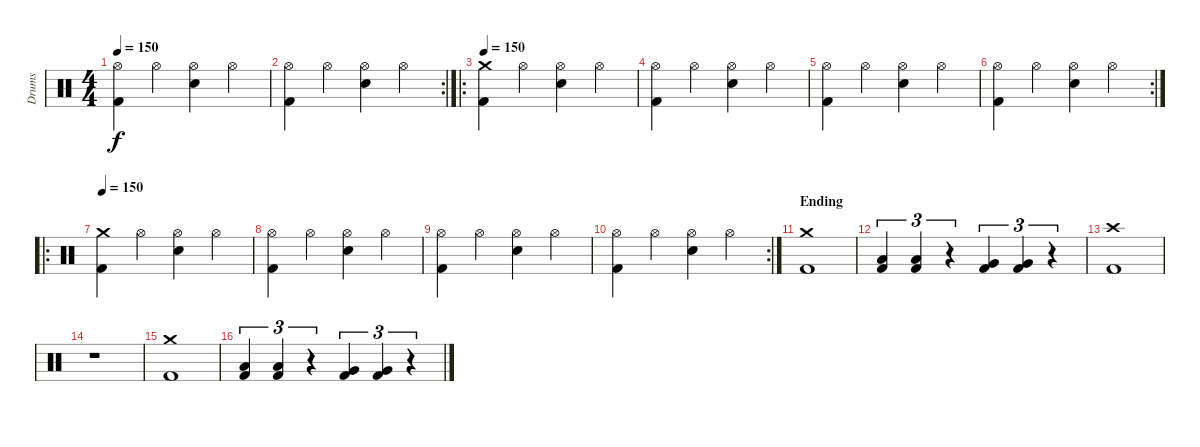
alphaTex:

\track ("Drums" "Drums") {instrument percussion}
\staff {score}
\articulation defaults
\ts (4 4)
\tempo 150
\clef neutral
\ks c
("Kick (hit) 2" "Hi-Hat (open)").4{dy f} "Hi-Hat (open)".4 ("Electric Snare (hit)" "Hi-Hat (open)").4 "Hi-Hat (open)".4 |
\rc 2
("Kick (hit) 2" "Hi-Hat (open)").4 "Hi-Hat (open)".4 ("Electric Snare (hit)" "Hi-Hat (open)").4 "Hi-Hat (open)".4 |
\ro
\tempo 150
("Kick (hit) 2" "Crash medium (hit)").4 "Hi-Hat (open)".4 ("Electric Snare (hit)" "Hi-Hat (open)").4 "Hi-Hat (open)".4 |
("Kick (hit) 2" "Hi-Hat (open)").4 "Hi-Hat (open)".4 ("Electric Snare (hit)" "Hi-Hat (open)").4 "Hi-Hat (open)".4 |
("Kick (hit) 2" "Hi-Hat (open)").4 "Hi-Hat (open)".4 ("Electric Snare (hit)" "Hi-Hat (open)").4 "Hi-Hat (open)".4 |
\rc 2
("Kick (hit) 2" "Hi-Hat (open)").4 "Hi-Hat (open)".4 ("Electric Snare (hit)" "Hi-Hat (open)").4 "Hi-Hat (open)".4 |
\ro
\tempo 150
("Kick (hit) 2" "Crash medium (hit)").4 "Hi-Hat (open)".4 ("Electric Snare (hit)" "Hi-Hat (open)").4 "Hi-Hat (open)".4 |
("Kick (hit) 2" "Hi-Hat (open)").4 "Hi-Hat (open)".4 ("Electric Snare (hit)" "Hi-Hat (open)").4 "Hi-Hat (open)".4 |
("Kick (hit) 2" "Hi-Hat (open)").4 "Hi-Hat (open)".4 ("Electric Snare (hit)" "Hi-Hat (open)").4 "Hi-Hat (open)".4 |
\rc 2
("Kick (hit) 2" "Hi-Hat (open)").4 "Hi-Hat (open)".4 ("Electric Snare (hit)" "Hi-Hat (open)").4 "Hi-Hat (open)".4 |
\section ("" "Ending")
("Kick (hit) 2" "Crash medium (hit)").1 |
("Kick (hit) 2" "Low Tom (hit)").4{tu (3 2)} ("Kick (hit) 2" "Low Tom (hit)").4{tu (3 2)} r.4{tu (3 2)} ("Kick (hit) 2" "Very Low Tom (hit)").4{tu (3 2)} ("Kick (hit) 2" "Very Low Tom (hit)").4{tu (3 2)} r.4{tu (3 2)} |
("Kick (hit) 2" "Crash high (hit)").1 |
r.1 |
("Kick (hit) 2" "Crash medium (hit)").1 |
("Kick (hit) 2" "Low Tom (hit)").4{tu (3 2)} ("Kick (hit) 2" "Low Tom (hit)").4{tu (3 2)} r.4{tu (3 2)} ("Kick (hit) 2" "Very Low Tom (hit)").4{tu (3 2)} ("Kick (hit) 2" "Very Low Tom (hit)").4{tu (3 2)} r.4{tu (3 2)}
